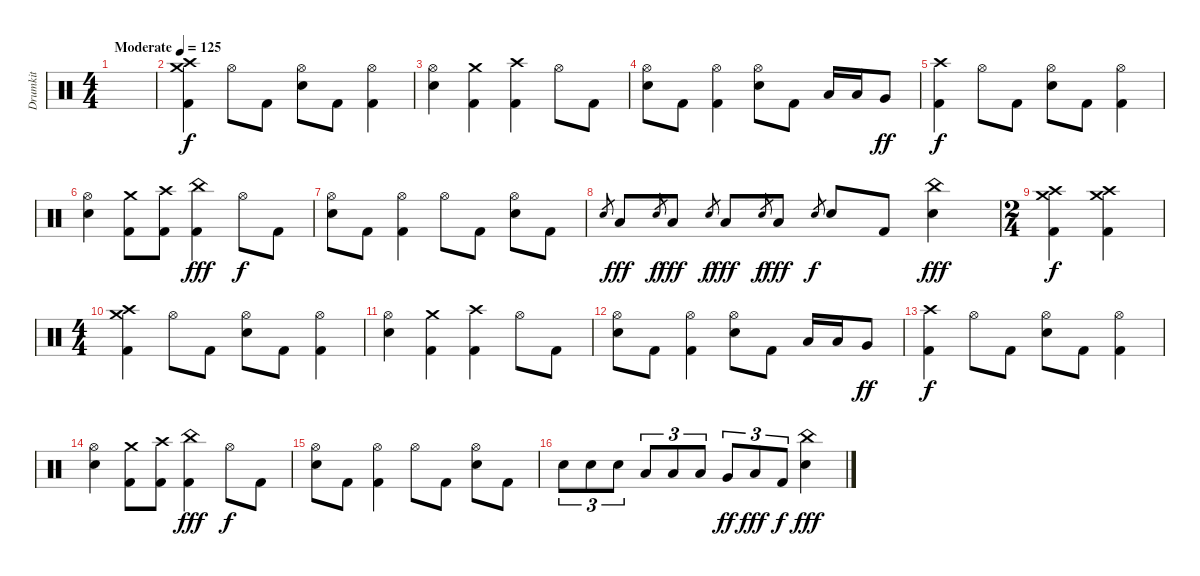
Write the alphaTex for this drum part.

\track ("Drumkit" "Drumkit") {instrument percussion}
\staff {score}
\articulation defaults
\ts (4 4)
\tempo (125 "Moderate")
\clef neutral
\ks c
|
("Crash high (hit)" "Crash medium (hit)" "Kick (hit) 2").4 "Hi-Hat (open)".8 "Kick (hit) 2".8 ("Hi-Hat (open)" "Electric Snare (hit)").8 "Kick (hit) 2".8 ("Hi-Hat (open)" "Kick (hit) 2").4 |
("Hi-Hat (open)" "Electric Snare (hit)").4 ("Crash medium (hit)" "Kick (hit) 2").4 ("Crash high (hit)" "Kick (hit) 2").4 "Hi-Hat (open)".8 "Kick (hit) 2".8 |
("Hi-Hat (open)" "Electric Snare (hit)").8 "Kick (hit) 2".8 ("Hi-Hat (open)" "Kick (hit) 2").4 ("Hi-Hat (open)" "Electric Snare (hit)").8 "Kick (hit) 2".8 "Low Tom (hit)".16 "Low Tom (hit)".16 "Very Low Tom (hit)".8{dy ff} |
("Crash high (hit)" "Kick (hit) 2").4{dy f} "Hi-Hat (open)".8 "Kick (hit) 2".8 ("Hi-Hat (open)" "Electric Snare (hit)").8 "Kick (hit) 2".8 ("Hi-Hat (open)" "Kick (hit) 2").4 |
("Hi-Hat (open)" "Electric Snare (hit)").4 ("Crash medium (hit)" "Kick (hit) 2").8 ("Crash high (hit)" "Kick (hit) 2").8 ("China (hit)" "Kick (hit) 2").4{dy fff} "Hi-Hat (open)".8{dy f} "Kick (hit) 2".8 |
("Hi-Hat (open)" "Electric Snare (hit)").8 "Kick (hit) 2".8 ("Hi-Hat (open)" "Kick (hit) 2").4 "Hi-Hat (open)".8 "Kick (hit) 2".8 ("Hi-Hat (open)" "Electric Snare (hit)").8 "Kick (hit) 2".8 |
"Electric Snare (hit)".8{gr} "Low Floor Tom (hit)".8{dy fff} "Electric Snare (hit)".8{gr dy f} "Low Floor Tom (hit)".8{dy fff} "Electric Snare (hit)".8{gr dy f} "Low Floor Tom (hit)".8{dy fff} "Electric Snare (hit)".8{gr dy f} "Low Floor Tom (hit)".8{dy fff} "Electric Snare (hit)".8{gr dy f} "Electric Snare (hit)".8 "Kick (hit) 2".8 ("China (hit)" "Electric Snare (hit)").4{dy fff} |
\ts (2 4)
("Crash high (hit)" "Crash medium (hit)" "Kick (hit) 2").4{dy f} ("Crash high (hit)" "Crash medium (hit)" "Kick (hit) 2").4 |
\ts (4 4)
("Crash high (hit)" "Crash medium (hit)" "Kick (hit) 2").4 "Hi-Hat (open)".8 "Kick (hit) 2".8 ("Hi-Hat (open)" "Electric Snare (hit)").8 "Kick (hit) 2".8 ("Hi-Hat (open)" "Kick (hit) 2").4 |
("Hi-Hat (open)" "Electric Snare (hit)").4 ("Crash medium (hit)" "Kick (hit) 2").4 ("Crash high (hit)" "Kick (hit) 2").4 "Hi-Hat (open)".8 "Kick (hit) 2".8 |
("Hi-Hat (open)" "Electric Snare (hit)").8 "Kick (hit) 2".8 ("Hi-Hat (open)" "Kick (hit) 2").4 ("Hi-Hat (open)" "Electric Snare (hit)").8 "Kick (hit) 2".8 "Low Tom (hit)".16 "Low Tom (hit)".16 "Very Low Tom (hit)".8{dy ff} |
("Crash high (hit)" "Kick (hit) 2").4{dy f} "Hi-Hat (open)".8 "Kick (hit) 2".8 ("Hi-Hat (open)" "Electric Snare (hit)").8 "Kick (hit) 2".8 ("Hi-Hat (open)" "Kick (hit) 2").4 |
("Hi-Hat (open)" "Electric Snare (hit)").4 ("Crash medium (hit)" "Kick (hit) 2").8 ("Crash high (hit)" "Kick (hit) 2").8 ("China (hit)" "Kick (hit) 2").4{dy fff} "Hi-Hat (open)".8{dy f} "Kick (hit) 2".8 |
("Hi-Hat (open)" "Electric Snare (hit)").8 "Kick (hit) 2".8 ("Hi-Hat (open)" "Kick (hit) 2").4 "Hi-Hat (open)".8 "Kick (hit) 2".8 ("Hi-Hat (open)" "Electric Snare (hit)").8 "Kick (hit) 2".8 |
"Electric Snare (hit)".8{tu (3 2)} "Electric Snare (hit)".8{tu (3 2)} "Electric Snare (hit)".8{tu (3 2)} "Low Tom (hit)".8{tu (3 2)} "Low Tom (hit)".8{tu (3 2)} "Low Tom (hit)".8{tu (3 2)} "Very Low Tom (hit)".8{tu (3 2) dy ff} "Low Floor Tom (hit)".8{tu (3 2) dy fff} "Kick (hit) 2".8{tu (3 2) dy f} ("China (hit)" "Electric Snare (hit)").4{dy fff}
